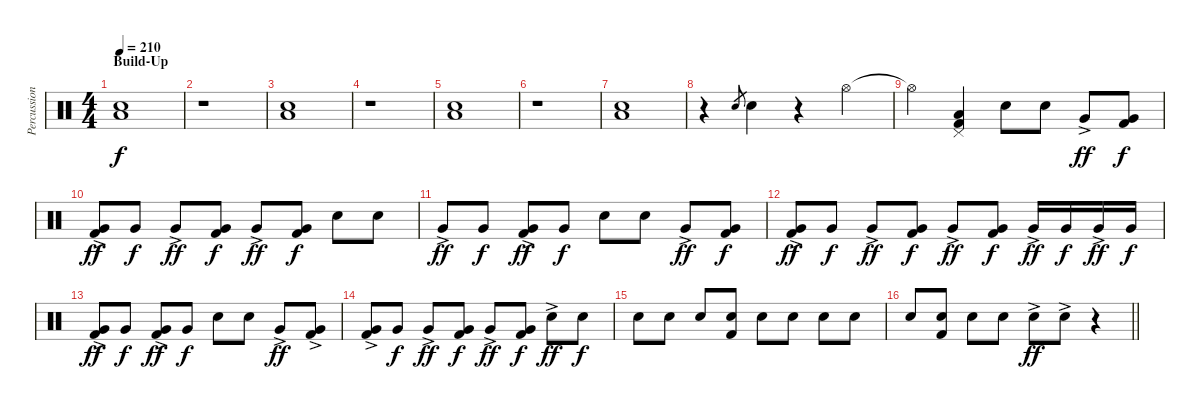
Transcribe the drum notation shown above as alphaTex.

\track ("Percussion" "Percussion") {instrument percussion}
\staff {score}
\articulation defaults
\ts (4 4)
\section ("" "Build-Up")
\tempo 210
\clef neutral
\ks c
("Electric Snare (hit)" "Low Floor Tom (hit)").1{dy f} |
r.1 |
("Electric Snare (hit)" "Low Floor Tom (hit)").1 |
r.1 |
("Electric Snare (hit)" "Low Floor Tom (hit)").1 |
r.1 |
("Electric Snare (hit)" "Low Floor Tom (hit)").1 |
r.4 "Electric Snare (hit)".8{gr} "Electric Snare (hit)".4 r.4 "Hi-Hat (open)".4{volume 12} |
"Hi-Hat (open)"{t}.4 ("Pedal Hi-Hat (hit)" "Low Tom (hit)" "Kick (hit) 2").4 "Electric Snare (hit)".8 "Electric Snare (hit)".8 "Very Low Tom (hit)"{ac}.8{dy ff} ("Very Low Tom (hit)" "Kick (hit) 2").8{dy f} |
("Very Low Tom (hit)"{ac} "Kick (hit) 2").8{dy ff} "Very Low Tom (hit)".8{dy f} "Very Low Tom (hit)"{ac}.8{dy ff} ("Very Low Tom (hit)" "Kick (hit) 2").8{dy f} "Very Low Tom (hit)"{ac}.8{dy ff} ("Very Low Tom (hit)" "Kick (hit) 2").8{dy f} "Electric Snare (hit)".8 "Electric Snare (hit)".8 |
"Very Low Tom (hit)"{ac}.8{dy ff} "Very Low Tom (hit)".8{dy f} ("Very Low Tom (hit)"{ac} "Kick (hit) 2").8{dy ff} "Very Low Tom (hit)".8{dy f} "Electric Snare (hit)".8 "Electric Snare (hit)".8 "Very Low Tom (hit)"{ac}.8{dy ff} ("Very Low Tom (hit)" "Kick (hit) 2").8{dy f} |
("Very Low Tom (hit)"{ac} "Kick (hit) 2").8{dy ff} "Very Low Tom (hit)".8{dy f} "Very Low Tom (hit)"{ac}.8{dy ff} ("Very Low Tom (hit)" "Kick (hit) 2").8{dy f} "Very Low Tom (hit)"{ac}.8{dy ff} ("Very Low Tom (hit)" "Kick (hit) 2").8{dy f} "Very Low Tom (hit)"{ac}.16{dy ff} "Very Low Tom (hit)".16{dy f} "Very Low Tom (hit)"{ac}.16{dy ff} "Very Low Tom (hit)".16{dy f} |
("Very Low Tom (hit)"{ac} "Kick (hit) 2").8{dy ff} "Very Low Tom (hit)".8{dy f} ("Very Low Tom (hit)"{ac} "Kick (hit) 2").8{dy ff} "Very Low Tom (hit)".8{dy f} "Electric Snare (hit)".8 "Electric Snare (hit)".8 "Very Low Tom (hit)"{ac}.8{dy ff} ("Very Low Tom (hit)"{ac} "Kick (hit) 2").8 |
("Very Low Tom (hit)"{ac} "Kick (hit) 2").8 "Very Low Tom (hit)".8{dy f} "Very Low Tom (hit)"{ac}.8{dy ff} ("Very Low Tom (hit)" "Kick (hit) 2").8{dy f} "Very Low Tom (hit)"{ac}.8{dy ff} ("Very Low Tom (hit)" "Kick (hit) 2").8{dy f} "Electric Snare (hit)"{ac}.8{dy ff} "Electric Snare (hit)".8{dy f} |
"Electric Snare (hit)".8 "Electric Snare (hit)".8 "Electric Snare (hit)".8 ("Electric Snare (hit)" "Kick (hit) 2").8 "Electric Snare (hit)".8 "Electric Snare (hit)".8 "Electric Snare (hit)".8 "Electric Snare (hit)".8 |
\barLineRight lightlight "Electric Snare (hit)".8
("Electric Snare (hit)" "Kick (hit) 2").8 "Electric Snare (hit)".8 "Electric Snare (hit)".8 "Electric Snare (hit)"{ac}.8{dy ff} "Electric Snare (hit)"{ac}.8 r.4
